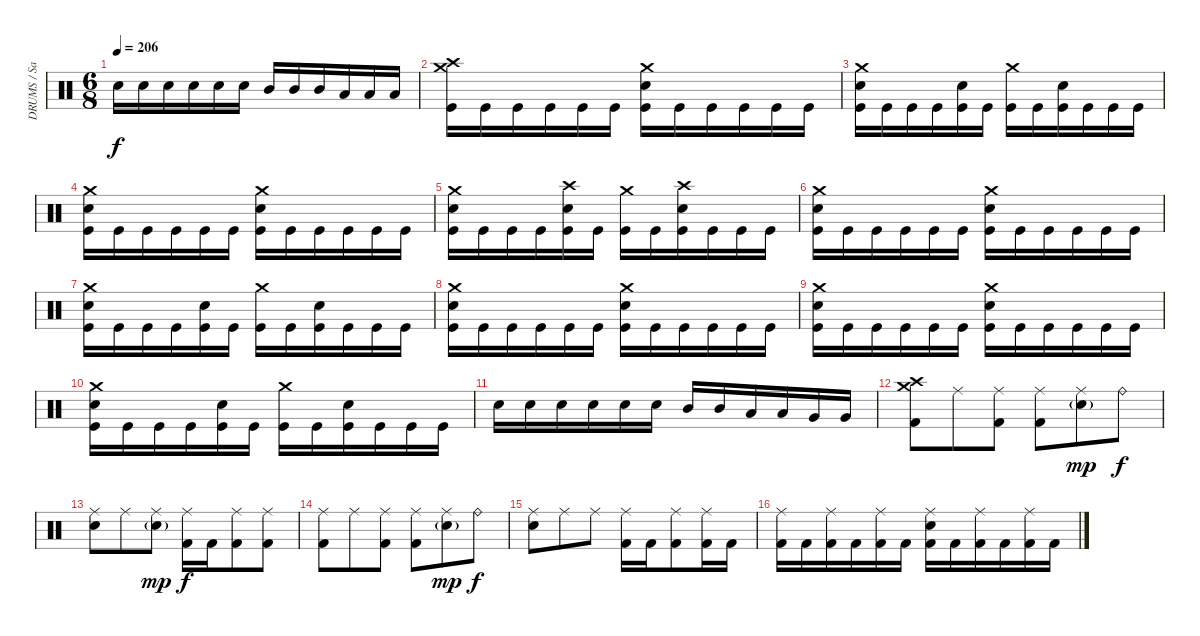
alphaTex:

\track ("DRUMS / Sasha" "DRUMS / Sa") {instrument percussion}
\staff {score}
\articulation defaults
\ts (6 8)
\tempo 206
\clef neutral
\ks c "Snare (hit) 2".16{dy f} "Snare (hit) 2".16 "Snare (hit) 2".16 "Snare (hit) 2".16 "Snare (hit) 2".16 "Snare (hit) 2".16 "Mid Tom (hit)".16 "Mid Tom (hit)".16 "Mid Tom (hit)".16 "Low Tom (hit)".16 "Low Tom (hit)".16 "Low Tom (hit)".16
|
("Kick (hit)" "Crash high (hit)" "Crash medium (hit)").16 "Kick (hit)".16 "Kick (hit)".16 "Kick (hit)".16 "Kick (hit)".16 "Kick (hit)".16 ("Kick (hit)" "Snare (hit) 2" "Crash medium (hit)").16 "Kick (hit)".16 "Kick (hit)".16 "Kick (hit)".16 "Kick (hit)".16 "Kick (hit)".16 |
("Kick (hit)" "Snare (hit) 2" "Crash medium (hit)").16 "Kick (hit)".16 "Kick (hit)".16 "Kick (hit)".16 ("Kick (hit)" "Snare (hit) 2").16 "Kick (hit)".16 ("Kick (hit)" "Crash medium (hit)").16 "Kick (hit)".16 ("Kick (hit)" "Snare (hit) 2").16 "Kick (hit)".16 "Kick (hit)".16 "Kick (hit)".16 |
("Kick (hit)" "Snare (hit) 2" "Crash medium (hit)").16 "Kick (hit)".16 "Kick (hit)".16 "Kick (hit)".16 "Kick (hit)".16 "Kick (hit)".16 ("Kick (hit)" "Snare (hit) 2" "Crash medium (hit)").16 "Kick (hit)".16 "Kick (hit)".16 "Kick (hit)".16 "Kick (hit)".16 "Kick (hit)".16 |
("Kick (hit)" "Snare (hit) 2" "Crash medium (hit)").16 "Kick (hit)".16 "Kick (hit)".16 "Kick (hit)".16 ("Crash high (hit)" "Kick (hit)" "Snare (hit) 2").16 "Kick (hit)".16 ("Kick (hit)" "Crash medium (hit)").16 "Kick (hit)".16 ("Crash high (hit)" "Kick (hit)" "Snare (hit) 2").16 "Kick (hit)".16 "Kick (hit)".16 "Kick (hit)".16 |
("Kick (hit)" "Snare (hit) 2" "Crash medium (hit)").16 "Kick (hit)".16 "Kick (hit)".16 "Kick (hit)".16 "Kick (hit)".16 "Kick (hit)".16 ("Kick (hit)" "Snare (hit) 2" "Crash medium (hit)").16 "Kick (hit)".16 "Kick (hit)".16 "Kick (hit)".16 "Kick (hit)".16 "Kick (hit)".16 |
("Kick (hit)" "Snare (hit) 2" "Crash medium (hit)").16 "Kick (hit)".16 "Kick (hit)".16 "Kick (hit)".16 ("Kick (hit)" "Snare (hit) 2").16 "Kick (hit)".16 ("Kick (hit)" "Crash medium (hit)").16 "Kick (hit)".16 ("Kick (hit)" "Snare (hit) 2").16 "Kick (hit)".16 "Kick (hit)".16 "Kick (hit)".16 |
("Kick (hit)" "Snare (hit) 2" "Crash medium (hit)").16 "Kick (hit)".16 "Kick (hit)".16 "Kick (hit)".16 "Kick (hit)".16 "Kick (hit)".16 ("Kick (hit)" "Snare (hit) 2" "Crash medium (hit)").16 "Kick (hit)".16 "Kick (hit)".16 "Kick (hit)".16 "Kick (hit)".16 "Kick (hit)".16 |
("Kick (hit)" "Snare (hit) 2" "Crash medium (hit)").16 "Kick (hit)".16 "Kick (hit)".16 "Kick (hit)".16 "Kick (hit)".16 "Kick (hit)".16 ("Kick (hit)" "Snare (hit) 2" "Crash medium (hit)").16 "Kick (hit)".16 "Kick (hit)".16 "Kick (hit)".16 "Kick (hit)".16 "Kick (hit)".16 |
("Kick (hit)" "Snare (hit) 2" "Crash medium (hit)").16 "Kick (hit)".16 "Kick (hit)".16 "Kick (hit)".16 ("Kick (hit)" "Snare (hit) 2").16 "Kick (hit)".16 ("Kick (hit)" "Crash medium (hit)").16 "Kick (hit)".16 ("Kick (hit)" "Snare (hit) 2").16 "Kick (hit)".16 "Kick (hit)".16 "Kick (hit)".16 |
"Snare (hit) 2".16 "Snare (hit) 2".16 "Snare (hit) 2".16 "Snare (hit) 2".16 "Snare (hit) 2".16 "Snare (hit) 2".16 "Mid Tom (hit)".16 "Mid Tom (hit)".16 "Low Tom (hit)".16 "Low Tom (hit)".16 "Very Low Tom (hit)".16 "Very Low Tom (hit)".16 |
("Crash high (hit)" "Crash medium (hit)" "Kick (hit) 2").8 "Ride (middle)".8 ("Ride (middle)" "Kick (hit) 2").8 ("Ride (middle)" "Kick (hit) 2").8 ("Ride (middle)" "Electric Snare (hit)"{g}).8{dy mp} "Ride (bell)".8{dy f} |
("Ride (middle)" "Electric Snare (hit)").8 "Ride (middle)".8 ("Ride (middle)" "Electric Snare (hit)"{g}).8{dy mp} ("Ride (middle)" "Kick (hit) 2").16{dy f} "Kick (hit) 2".16 ("Ride (middle)" "Kick (hit) 2").8 ("Ride (middle)" "Kick (hit) 2").8 |
("Ride (middle)" "Kick (hit) 2").8 "Ride (middle)".8 ("Ride (middle)" "Kick (hit) 2").8 ("Ride (middle)" "Kick (hit) 2").8 ("Ride (middle)" "Electric Snare (hit)"{g}).8{dy mp} "Ride (bell)".8{dy f} |
("Ride (middle)" "Electric Snare (hit)").8 "Ride (middle)".8 "Ride (middle)".8 ("Ride (middle)" "Kick (hit) 2").16 "Kick (hit) 2".16 ("Ride (middle)" "Kick (hit) 2").8 ("Ride (middle)" "Kick (hit) 2").16 "Kick (hit) 2".16 |
("Ride (middle)" "Kick (hit) 2").16 "Kick (hit) 2".16 ("Ride (middle)" "Kick (hit) 2").16 "Kick (hit) 2".16 ("Ride (middle)" "Kick (hit) 2").16 "Kick (hit) 2".16 ("Ride (middle)" "Electric Snare (hit)" "Kick (hit) 2").16 "Kick (hit) 2".16 ("Ride (middle)" "Kick (hit) 2").16 "Kick (hit) 2".16 ("Ride (middle)" "Kick (hit) 2").16 "Kick (hit) 2".16
